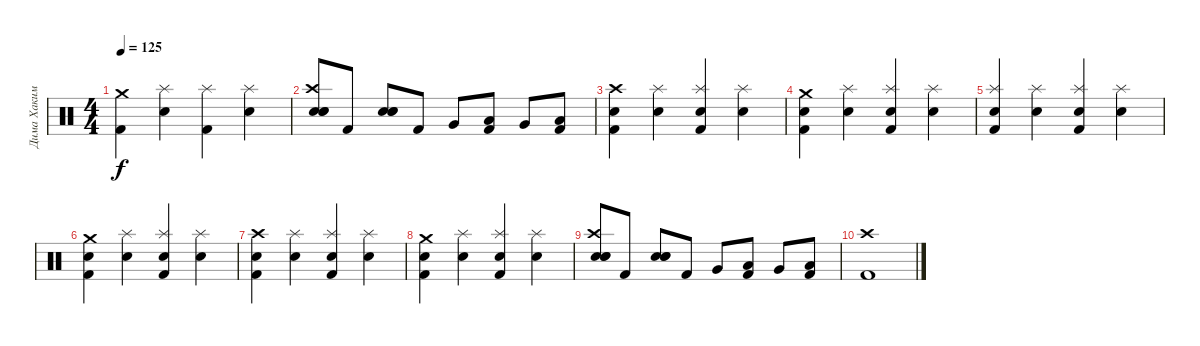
\track ("Дима Хакимов" "Дима Хаким") {instrument percussion}
\staff {score}
\articulation defaults
\ts (4 4)
\tempo 125
\clef neutral
\ks c
("Crash medium (hit)" "Kick (hit) 2").4{dy f} ("Splash (hit)" "Electric Snare (hit)").4 ("Splash (hit)" "Kick (hit) 2").4 ("Splash (hit)" "Electric Snare (hit)").4 |
("Crash high (hit)" "Electric Snare (hit)" "Snare (hit) 2" "Hand Clap (hit)").8 "Kick (hit) 2".8 ("Electric Snare (hit)" "Snare (hit) 2" "Hand Clap (hit)").8 "Kick (hit) 2".8 "Very Low Tom (hit)".8 ("Low Floor Tom (hit)" "Kick (hit) 2").8 "Very Low Tom (hit)".8 ("Low Floor Tom (hit)" "Kick (hit) 2").8 |
("Crash high (hit)" "Electric Snare (hit)" "Kick (hit) 2").4 ("Splash (hit)" "Electric Snare (hit)").4 ("Splash (hit)" "Electric Snare (hit)" "Kick (hit) 2").4 ("Splash (hit)" "Electric Snare (hit)").4 |
("Crash medium (hit)" "Electric Snare (hit)" "Kick (hit) 2").4 ("Splash (hit)" "Electric Snare (hit)").4 ("Splash (hit)" "Electric Snare (hit)" "Kick (hit) 2").4 ("Splash (hit)" "Electric Snare (hit)").4 |
("Splash (hit)" "Electric Snare (hit)" "Kick (hit) 2").4 ("Splash (hit)" "Electric Snare (hit)").4 ("Splash (hit)" "Electric Snare (hit)" "Kick (hit) 2").4 ("Splash (hit)" "Electric Snare (hit)").4 |
("Crash medium (hit)" "Electric Snare (hit)" "Kick (hit) 2").4 ("Splash (hit)" "Electric Snare (hit)").4 ("Splash (hit)" "Electric Snare (hit)" "Kick (hit) 2").4 ("Splash (hit)" "Electric Snare (hit)").4 |
("Crash high (hit)" "Electric Snare (hit)" "Kick (hit) 2").4 ("Splash (hit)" "Electric Snare (hit)").4 ("Splash (hit)" "Electric Snare (hit)" "Kick (hit) 2").4 ("Splash (hit)" "Electric Snare (hit)").4 |
("Crash medium (hit)" "Electric Snare (hit)" "Kick (hit) 2").4 ("Splash (hit)" "Electric Snare (hit)").4 ("Splash (hit)" "Electric Snare (hit)" "Kick (hit) 2").4 ("Splash (hit)" "Electric Snare (hit)").4 |
("Crash high (hit)" "Electric Snare (hit)" "Snare (hit) 2" "Hand Clap (hit)").8 "Kick (hit) 2".8 ("Electric Snare (hit)" "Snare (hit) 2" "Hand Clap (hit)").8 "Kick (hit) 2".8 "Very Low Tom (hit)".8 ("Low Floor Tom (hit)" "Kick (hit) 2").8 "Very Low Tom (hit)".8 ("Low Floor Tom (hit)" "Kick (hit) 2").8 |
("Crash high (hit)" "Kick (hit) 2").1
